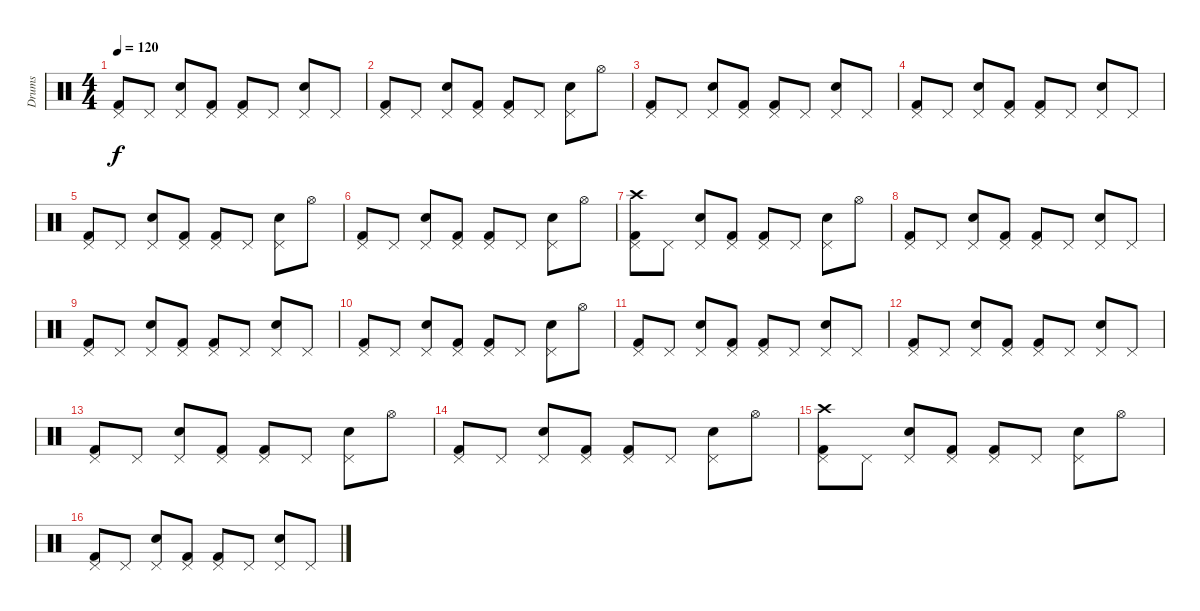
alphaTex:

\track ("Drums" "Drums") {instrument percussion}
\staff {score}
\articulation defaults
\ts (4 4)
\tempo 120
\clef neutral
\ks c
("Pedal Hi-Hat (hit)" "Kick (hit) 2").8{dy f} "Pedal Hi-Hat (hit)".8 ("Pedal Hi-Hat (hit)" "Snare (hit) 2").8 ("Pedal Hi-Hat (hit)" "Kick (hit) 2").8 ("Pedal Hi-Hat (hit)" "Kick (hit) 2").8 "Pedal Hi-Hat (hit)".8 ("Pedal Hi-Hat (hit)" "Snare (hit) 2").8 "Pedal Hi-Hat (hit)".8 |
("Pedal Hi-Hat (hit)" "Kick (hit) 2").8 "Pedal Hi-Hat (hit)".8 ("Pedal Hi-Hat (hit)" "Snare (hit) 2").8 ("Pedal Hi-Hat (hit)" "Kick (hit) 2").8 ("Pedal Hi-Hat (hit)" "Kick (hit) 2").8 "Pedal Hi-Hat (hit)".8 ("Pedal Hi-Hat (hit)" "Snare (hit) 2").8 "Hi-Hat (open)".8 |
("Pedal Hi-Hat (hit)" "Kick (hit) 2").8 "Pedal Hi-Hat (hit)".8 ("Pedal Hi-Hat (hit)" "Snare (hit) 2").8 ("Pedal Hi-Hat (hit)" "Kick (hit) 2").8 ("Pedal Hi-Hat (hit)" "Kick (hit) 2").8 "Pedal Hi-Hat (hit)".8 ("Pedal Hi-Hat (hit)" "Snare (hit) 2").8 "Pedal Hi-Hat (hit)".8 |
("Pedal Hi-Hat (hit)" "Kick (hit) 2").8 "Pedal Hi-Hat (hit)".8 ("Pedal Hi-Hat (hit)" "Snare (hit) 2").8 ("Pedal Hi-Hat (hit)" "Kick (hit) 2").8 ("Pedal Hi-Hat (hit)" "Kick (hit) 2").8 "Pedal Hi-Hat (hit)".8 ("Pedal Hi-Hat (hit)" "Snare (hit) 2").8 "Pedal Hi-Hat (hit)".8 |
("Pedal Hi-Hat (hit)" "Kick (hit) 2").8 "Pedal Hi-Hat (hit)".8 ("Pedal Hi-Hat (hit)" "Snare (hit) 2").8 ("Pedal Hi-Hat (hit)" "Kick (hit) 2").8 ("Pedal Hi-Hat (hit)" "Kick (hit) 2").8 "Pedal Hi-Hat (hit)".8 ("Pedal Hi-Hat (hit)" "Snare (hit) 2").8 "Hi-Hat (open)".8 |
("Pedal Hi-Hat (hit)" "Kick (hit) 2").8 "Pedal Hi-Hat (hit)".8 ("Pedal Hi-Hat (hit)" "Snare (hit) 2").8 ("Pedal Hi-Hat (hit)" "Kick (hit) 2").8 ("Pedal Hi-Hat (hit)" "Kick (hit) 2").8 "Pedal Hi-Hat (hit)".8 ("Pedal Hi-Hat (hit)" "Snare (hit) 2").8 "Hi-Hat (open)".8 |
("Crash high (hit)" "Pedal Hi-Hat (hit)" "Kick (hit) 2").8 "Pedal Hi-Hat (hit)".8 ("Pedal Hi-Hat (hit)" "Snare (hit) 2").8 ("Pedal Hi-Hat (hit)" "Kick (hit) 2").8 ("Pedal Hi-Hat (hit)" "Kick (hit) 2").8 "Pedal Hi-Hat (hit)".8 ("Pedal Hi-Hat (hit)" "Snare (hit) 2").8 "Hi-Hat (open)".8 |
("Pedal Hi-Hat (hit)" "Kick (hit) 2").8 "Pedal Hi-Hat (hit)".8 ("Pedal Hi-Hat (hit)" "Snare (hit) 2").8 ("Pedal Hi-Hat (hit)" "Kick (hit) 2").8 ("Pedal Hi-Hat (hit)" "Kick (hit) 2").8 "Pedal Hi-Hat (hit)".8 ("Pedal Hi-Hat (hit)" "Snare (hit) 2").8 "Pedal Hi-Hat (hit)".8 |
("Pedal Hi-Hat (hit)" "Kick (hit) 2").8 "Pedal Hi-Hat (hit)".8 ("Pedal Hi-Hat (hit)" "Snare (hit) 2").8 ("Pedal Hi-Hat (hit)" "Kick (hit) 2").8 ("Pedal Hi-Hat (hit)" "Kick (hit) 2").8 "Pedal Hi-Hat (hit)".8 ("Pedal Hi-Hat (hit)" "Snare (hit) 2").8 "Pedal Hi-Hat (hit)".8 |
("Pedal Hi-Hat (hit)" "Kick (hit) 2").8 "Pedal Hi-Hat (hit)".8 ("Pedal Hi-Hat (hit)" "Snare (hit) 2").8 ("Pedal Hi-Hat (hit)" "Kick (hit) 2").8 ("Pedal Hi-Hat (hit)" "Kick (hit) 2").8 "Pedal Hi-Hat (hit)".8 ("Pedal Hi-Hat (hit)" "Snare (hit) 2").8 "Hi-Hat (open)".8 |
("Pedal Hi-Hat (hit)" "Kick (hit) 2").8 "Pedal Hi-Hat (hit)".8 ("Pedal Hi-Hat (hit)" "Snare (hit) 2").8 ("Pedal Hi-Hat (hit)" "Kick (hit) 2").8 ("Pedal Hi-Hat (hit)" "Kick (hit) 2").8 "Pedal Hi-Hat (hit)".8 ("Pedal Hi-Hat (hit)" "Snare (hit) 2").8 "Pedal Hi-Hat (hit)".8 |
("Pedal Hi-Hat (hit)" "Kick (hit) 2").8 "Pedal Hi-Hat (hit)".8 ("Pedal Hi-Hat (hit)" "Snare (hit) 2").8 ("Pedal Hi-Hat (hit)" "Kick (hit) 2").8 ("Pedal Hi-Hat (hit)" "Kick (hit) 2").8 "Pedal Hi-Hat (hit)".8 ("Pedal Hi-Hat (hit)" "Snare (hit) 2").8 "Pedal Hi-Hat (hit)".8 |
("Pedal Hi-Hat (hit)" "Kick (hit) 2").8 "Pedal Hi-Hat (hit)".8 ("Pedal Hi-Hat (hit)" "Snare (hit) 2").8 ("Pedal Hi-Hat (hit)" "Kick (hit) 2").8 ("Pedal Hi-Hat (hit)" "Kick (hit) 2").8 "Pedal Hi-Hat (hit)".8 ("Pedal Hi-Hat (hit)" "Snare (hit) 2").8 "Hi-Hat (open)".8 |
("Pedal Hi-Hat (hit)" "Kick (hit) 2").8 "Pedal Hi-Hat (hit)".8 ("Pedal Hi-Hat (hit)" "Snare (hit) 2").8 ("Pedal Hi-Hat (hit)" "Kick (hit) 2").8 ("Pedal Hi-Hat (hit)" "Kick (hit) 2").8 "Pedal Hi-Hat (hit)".8 ("Pedal Hi-Hat (hit)" "Snare (hit) 2").8 "Hi-Hat (open)".8 |
("Crash high (hit)" "Pedal Hi-Hat (hit)" "Kick (hit) 2").8 "Pedal Hi-Hat (hit)".8 ("Pedal Hi-Hat (hit)" "Snare (hit) 2").8 ("Pedal Hi-Hat (hit)" "Kick (hit) 2").8 ("Pedal Hi-Hat (hit)" "Kick (hit) 2").8 "Pedal Hi-Hat (hit)".8 ("Pedal Hi-Hat (hit)" "Snare (hit) 2").8 "Hi-Hat (open)".8 |
("Pedal Hi-Hat (hit)" "Kick (hit) 2").8 "Pedal Hi-Hat (hit)".8 ("Pedal Hi-Hat (hit)" "Snare (hit) 2").8 ("Pedal Hi-Hat (hit)" "Kick (hit) 2").8 ("Pedal Hi-Hat (hit)" "Kick (hit) 2").8 "Pedal Hi-Hat (hit)".8 ("Pedal Hi-Hat (hit)" "Snare (hit) 2").8 "Pedal Hi-Hat (hit)".8
